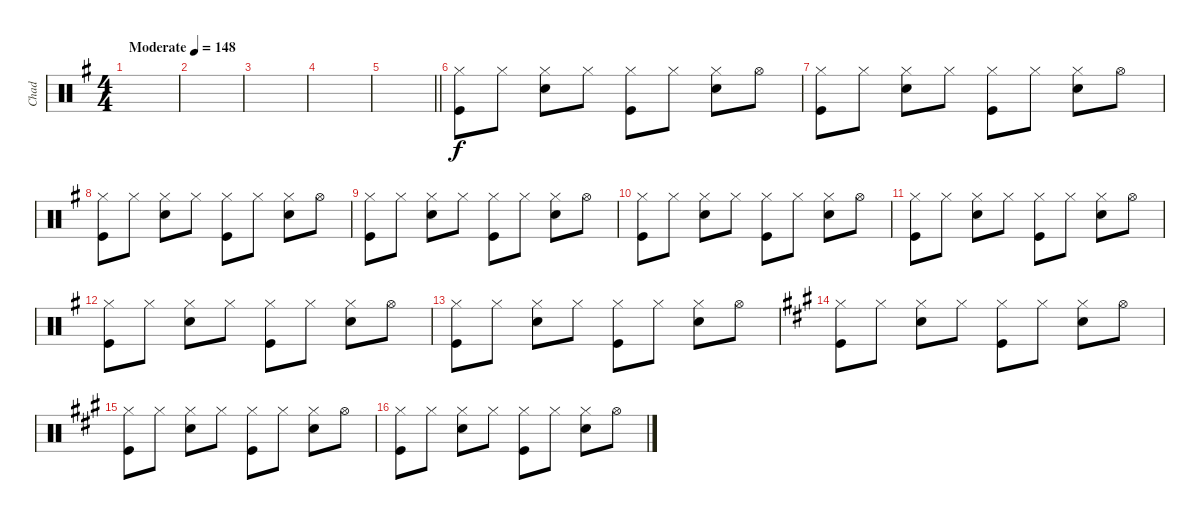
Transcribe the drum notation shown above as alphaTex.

\track ("Chad" "Chad") {instrument percussion}
\staff {score}
\articulation defaults
\ts (4 4)
\tempo (148 "Moderate")
\clef neutral
\ks g
|
|
|
|
\barLineRight lightlight
|
("Hi-Hat (closed)" "Kick (hit)").8 "Hi-Hat (closed)".8 ("Hi-Hat (closed)" "Snare (hit) 2").8 "Hi-Hat (closed)".8 ("Hi-Hat (closed)" "Kick (hit)").8 "Hi-Hat (closed)".8 ("Hi-Hat (closed)" "Snare (hit) 2").8 "Hi-Hat (open)".8 |
("Hi-Hat (closed)" "Kick (hit)").8 "Hi-Hat (closed)".8 ("Hi-Hat (closed)" "Snare (hit) 2").8 "Hi-Hat (closed)".8 ("Hi-Hat (closed)" "Kick (hit)").8 "Hi-Hat (closed)".8 ("Hi-Hat (closed)" "Snare (hit) 2").8 "Hi-Hat (open)".8 |
("Hi-Hat (closed)" "Kick (hit)").8 "Hi-Hat (closed)".8 ("Hi-Hat (closed)" "Snare (hit) 2").8 "Hi-Hat (closed)".8 ("Hi-Hat (closed)" "Kick (hit)").8 "Hi-Hat (closed)".8 ("Hi-Hat (closed)" "Snare (hit) 2").8 "Hi-Hat (open)".8 |
("Hi-Hat (closed)" "Kick (hit)").8 "Hi-Hat (closed)".8 ("Hi-Hat (closed)" "Snare (hit) 2").8 "Hi-Hat (closed)".8 ("Hi-Hat (closed)" "Kick (hit)").8 "Hi-Hat (closed)".8 ("Hi-Hat (closed)" "Snare (hit) 2").8 "Hi-Hat (open)".8 |
("Hi-Hat (closed)" "Kick (hit)").8 "Hi-Hat (closed)".8 ("Hi-Hat (closed)" "Snare (hit) 2").8 "Hi-Hat (closed)".8 ("Hi-Hat (closed)" "Kick (hit)").8 "Hi-Hat (closed)".8 ("Hi-Hat (closed)" "Snare (hit) 2").8 "Hi-Hat (open)".8 |
("Hi-Hat (closed)" "Kick (hit)").8 "Hi-Hat (closed)".8 ("Hi-Hat (closed)" "Snare (hit) 2").8 "Hi-Hat (closed)".8 ("Hi-Hat (closed)" "Kick (hit)").8 "Hi-Hat (closed)".8 ("Hi-Hat (closed)" "Snare (hit) 2").8 "Hi-Hat (open)".8 |
("Hi-Hat (closed)" "Kick (hit)").8 "Hi-Hat (closed)".8 ("Hi-Hat (closed)" "Snare (hit) 2").8 "Hi-Hat (closed)".8 ("Hi-Hat (closed)" "Kick (hit)").8 "Hi-Hat (closed)".8 ("Hi-Hat (closed)" "Snare (hit) 2").8 "Hi-Hat (open)".8 |
("Hi-Hat (closed)" "Kick (hit)").8 "Hi-Hat (closed)".8 ("Hi-Hat (closed)" "Snare (hit) 2").8 "Hi-Hat (closed)".8 ("Hi-Hat (closed)" "Kick (hit)").8 "Hi-Hat (closed)".8 ("Hi-Hat (closed)" "Snare (hit) 2").8 "Hi-Hat (open)".8 |
\ks a
("Hi-Hat (closed)" "Kick (hit)").8 "Hi-Hat (closed)".8 ("Hi-Hat (closed)" "Snare (hit) 2").8 "Hi-Hat (closed)".8 ("Hi-Hat (closed)" "Kick (hit)").8 "Hi-Hat (closed)".8 ("Hi-Hat (closed)" "Snare (hit) 2").8 "Hi-Hat (open)".8 |
("Hi-Hat (closed)" "Kick (hit)").8 "Hi-Hat (closed)".8 ("Hi-Hat (closed)" "Snare (hit) 2").8 "Hi-Hat (closed)".8 ("Hi-Hat (closed)" "Kick (hit)").8 "Hi-Hat (closed)".8 ("Hi-Hat (closed)" "Snare (hit) 2").8 "Hi-Hat (open)".8 |
("Hi-Hat (closed)" "Kick (hit)").8 "Hi-Hat (closed)".8 ("Hi-Hat (closed)" "Snare (hit) 2").8 "Hi-Hat (closed)".8 ("Hi-Hat (closed)" "Kick (hit)").8 "Hi-Hat (closed)".8 ("Hi-Hat (closed)" "Snare (hit) 2").8 "Hi-Hat (open)".8
